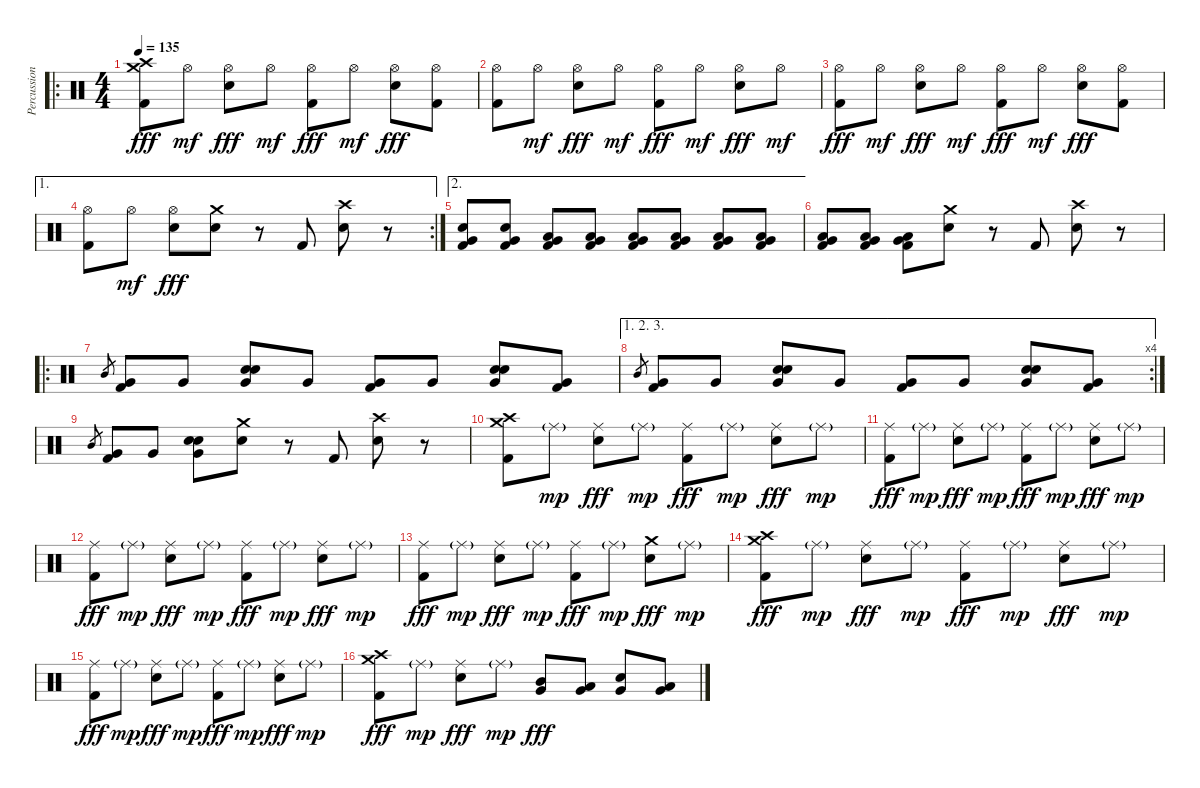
\track ("Percussions" "Percussion") {instrument percussion}
\staff {score}
\articulation defaults
\ro
\ts (4 4)
\tempo 135
\clef neutral
\ks c
("Crash medium (hit)" "Crash high (hit)" "Kick (hit) 2").8{dy fff} "Hi-Hat (open)".8{dy mf} ("Hi-Hat (open)" "Electric Snare (hit)").8{dy fff} "Hi-Hat (open)".8{dy mf} ("Hi-Hat (open)" "Kick (hit) 2").8{dy fff} "Hi-Hat (open)".8{dy mf} ("Hi-Hat (open)" "Electric Snare (hit)").8{dy fff} ("Hi-Hat (open)" "Kick (hit) 2").8 |
("Hi-Hat (open)" "Kick (hit) 2").8 "Hi-Hat (open)".8{dy mf} ("Hi-Hat (open)" "Electric Snare (hit)").8{dy fff} "Hi-Hat (open)".8{dy mf} ("Hi-Hat (open)" "Kick (hit) 2").8{dy fff} "Hi-Hat (open)".8{dy mf} ("Hi-Hat (open)" "Electric Snare (hit)").8{dy fff} "Hi-Hat (open)".8{dy mf} |
("Hi-Hat (open)" "Kick (hit) 2").8{dy fff} "Hi-Hat (open)".8{dy mf} ("Hi-Hat (open)" "Electric Snare (hit)").8{dy fff} "Hi-Hat (open)".8{dy mf} ("Hi-Hat (open)" "Kick (hit) 2").8{dy fff} "Hi-Hat (open)".8{dy mf} ("Hi-Hat (open)" "Electric Snare (hit)").8{dy fff} ("Hi-Hat (open)" "Kick (hit) 2").8 |
\ae 1
\rc 2
("Hi-Hat (open)" "Kick (hit) 2").8 "Hi-Hat (open)".8{dy mf} ("Hi-Hat (open)" "Electric Snare (hit)").8{dy fff} ("Crash medium (hit)" "Electric Snare (hit)").8 r.8 "Kick (hit) 2".8 ("Crash high (hit)" "Electric Snare (hit)").8 r.8 |
\ae 2
("Electric Snare (hit)" "Very Low Tom (hit)" "Kick (hit) 2").8 ("Electric Snare (hit)" "Very Low Tom (hit)" "Kick (hit) 2").8 ("Very Low Tom (hit)" "Low Floor Tom (hit)" "Kick (hit) 2").8 ("Very Low Tom (hit)" "Low Floor Tom (hit)" "Kick (hit) 2").8 ("Very Low Tom (hit)" "Low Floor Tom (hit)" "Kick (hit) 2").8 ("Very Low Tom (hit)" "Low Floor Tom (hit)" "Kick (hit) 2").8 ("Very Low Tom (hit)" "Low Floor Tom (hit)" "Kick (hit) 2").8 ("Very Low Tom (hit)" "Low Floor Tom (hit)" "Kick (hit) 2").8 |
("Very Low Tom (hit)" "Low Floor Tom (hit)" "Kick (hit) 2").8 ("Very Low Tom (hit)" "Low Floor Tom (hit)" "Kick (hit) 2").8 ("Very Low Tom (hit)" "Low Floor Tom (hit)" "Kick (hit) 2").8 ("Crash medium (hit)" "Electric Snare (hit)").8 r.8 "Kick (hit) 2".8 ("Crash high (hit)" "Electric Snare (hit)").8 r.8 |
\ro "Mid Tom (hit)".8{gr}
("Very Low Tom (hit)" "Kick (hit) 2").8 "Very Low Tom (hit)".8 ("Snare (hit) 2" "Electric Snare (hit)" "Very Low Tom (hit)").8 "Very Low Tom (hit)".8 ("Very Low Tom (hit)" "Kick (hit) 2").8 "Very Low Tom (hit)".8 ("Snare (hit) 2" "Electric Snare (hit)" "Very Low Tom (hit)").8 ("Very Low Tom (hit)" "Kick (hit) 2").8 |
\ae (1 2 3)
\rc 4 "Mid Tom (hit)".8{gr}
("Very Low Tom (hit)" "Kick (hit) 2").8 "Very Low Tom (hit)".8 ("Snare (hit) 2" "Electric Snare (hit)" "Very Low Tom (hit)").8 "Very Low Tom (hit)".8 ("Very Low Tom (hit)" "Kick (hit) 2").8 "Very Low Tom (hit)".8 ("Snare (hit) 2" "Electric Snare (hit)" "Very Low Tom (hit)").8 ("Very Low Tom (hit)" "Kick (hit) 2").8 |
"Mid Tom (hit)".8{gr} ("Very Low Tom (hit)" "Kick (hit) 2").8 "Very Low Tom (hit)".8 ("Snare (hit) 2" "Electric Snare (hit)" "Very Low Tom (hit)").8 ("Crash medium (hit)" "Electric Snare (hit)").8 r.8 "Kick (hit) 2".8 ("Crash high (hit)" "Electric Snare (hit)").8 r.8 |
("Crash medium (hit)" "Crash high (hit)" "Kick (hit) 2").8 "Ride (middle)"{g}.8{dy mp} ("Ride (middle)" "Electric Snare (hit)").8{dy fff} "Ride (middle)"{g}.8{dy mp} ("Ride (middle)" "Kick (hit) 2").8{dy fff} "Ride (middle)"{g}.8{dy mp} ("Ride (middle)" "Electric Snare (hit)").8{dy fff} "Ride (middle)"{g}.8{dy mp} |
("Ride (middle)" "Kick (hit) 2").8{dy fff} "Ride (middle)"{g}.8{dy mp} ("Ride (middle)" "Electric Snare (hit)").8{dy fff} "Ride (middle)"{g}.8{dy mp} ("Ride (middle)" "Kick (hit) 2").8{dy fff} "Ride (middle)"{g}.8{dy mp} ("Ride (middle)" "Electric Snare (hit)").8{dy fff} "Ride (middle)"{g}.8{dy mp} |
("Ride (middle)" "Kick (hit) 2").8{dy fff} "Ride (middle)"{g}.8{dy mp} ("Ride (middle)" "Electric Snare (hit)").8{dy fff} "Ride (middle)"{g}.8{dy mp} ("Ride (middle)" "Kick (hit) 2").8{dy fff} "Ride (middle)"{g}.8{dy mp} ("Ride (middle)" "Electric Snare (hit)").8{dy fff} "Ride (middle)"{g}.8{dy mp} |
("Ride (middle)" "Kick (hit) 2").8{dy fff} "Ride (middle)"{g}.8{dy mp} ("Ride (middle)" "Electric Snare (hit)").8{dy fff} "Ride (middle)"{g}.8{dy mp} ("Ride (middle)" "Kick (hit) 2").8{dy fff} "Ride (middle)"{g}.8{dy mp} ("Crash medium (hit)" "Electric Snare (hit)").8{dy fff} "Ride (middle)"{g}.8{dy mp} |
("Crash medium (hit)" "Crash high (hit)" "Kick (hit) 2").8{dy fff} "Ride (middle)"{g}.8{dy mp} ("Ride (middle)" "Electric Snare (hit)").8{dy fff} "Ride (middle)"{g}.8{dy mp} ("Ride (middle)" "Kick (hit) 2").8{dy fff} "Ride (middle)"{g}.8{dy mp} ("Ride (middle)" "Electric Snare (hit)").8{dy fff} "Ride (middle)"{g}.8{dy mp} |
("Ride (middle)" "Kick (hit) 2").8{dy fff} "Ride (middle)"{g}.8{dy mp} ("Ride (middle)" "Electric Snare (hit)").8{dy fff} "Ride (middle)"{g}.8{dy mp} ("Ride (middle)" "Kick (hit) 2").8{dy fff} "Ride (middle)"{g}.8{dy mp} ("Ride (middle)" "Electric Snare (hit)").8{dy fff} "Ride (middle)"{g}.8{dy mp} |
("Crash medium (hit)" "Crash high (hit)" "Kick (hit) 2").8{dy fff} "Ride (middle)"{g}.8{dy mp} ("Ride (middle)" "Electric Snare (hit)").8{dy fff} "Ride (middle)"{g}.8{dy mp} ("Mid Tom (hit)" "Very Low Tom (hit)").8{dy fff} ("Low Tom (hit)" "Very Low Tom (hit)").8 ("Electric Snare (hit)" "Very Low Tom (hit)").8 ("Low Tom (hit)" "Very Low Tom (hit)").8
